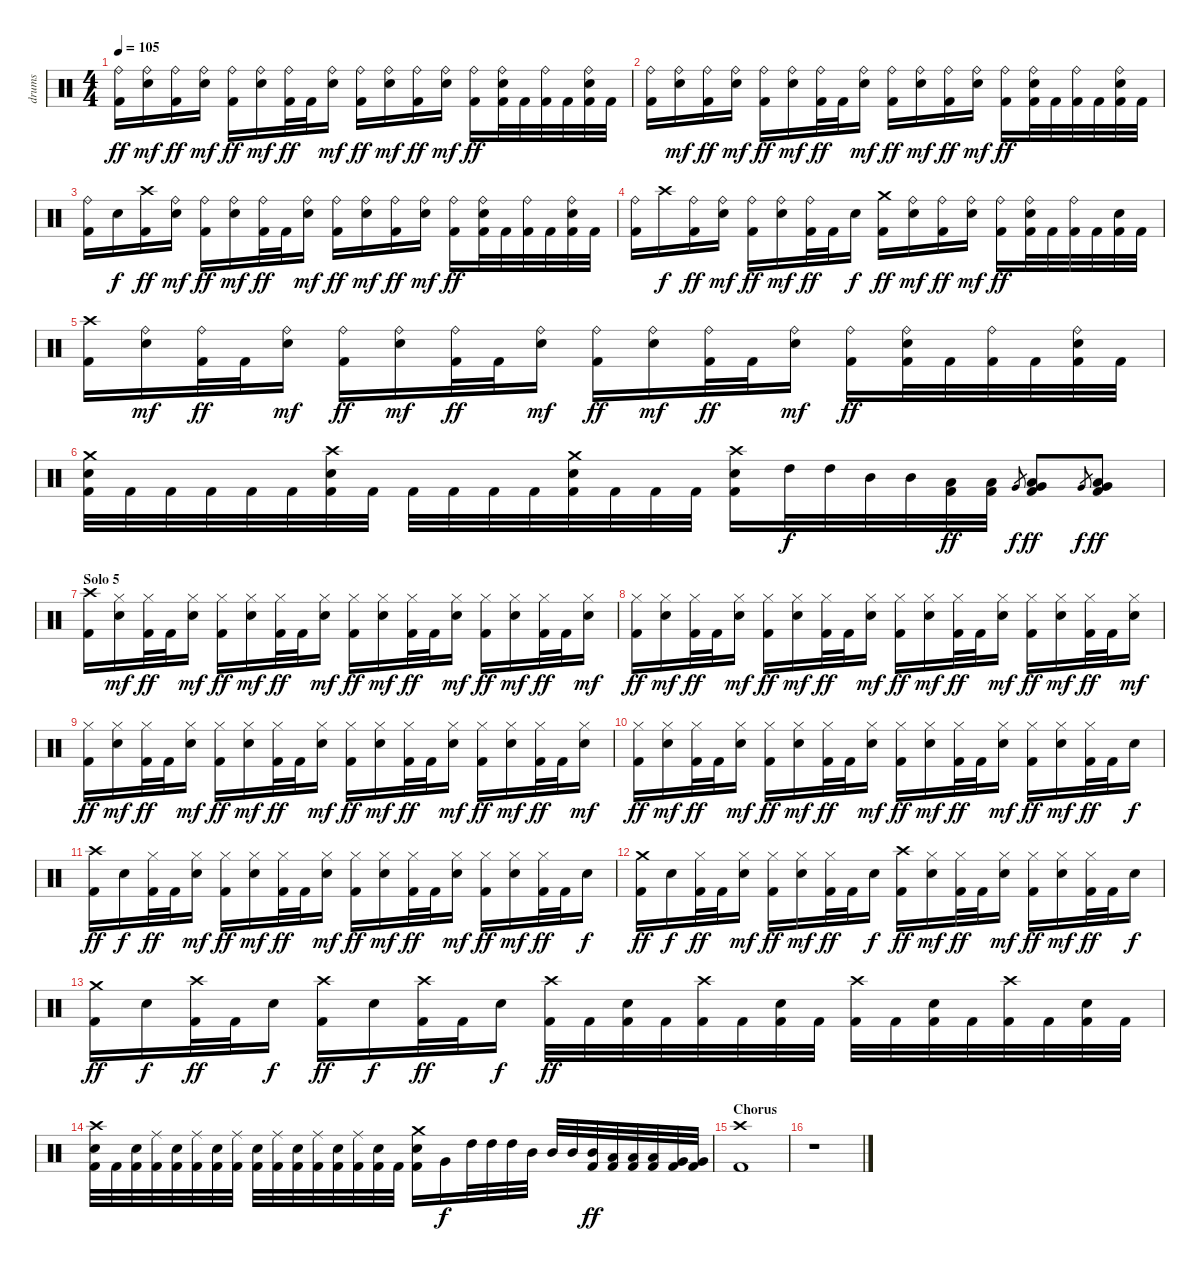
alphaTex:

\track ("drums" "drums") {instrument percussion}
\staff {score}
\articulation defaults
\ts (4 4)
\tempo 105
\clef neutral
\ks c
("Ride (bell)" "Kick (hit) 2").16{dy ff} ("Ride (bell)" "Snare (hit) 2").16{dy mf} ("Ride (bell)" "Kick (hit) 2").16{dy ff} ("Ride (bell)" "Snare (hit) 2").16{dy mf} ("Ride (bell)" "Kick (hit) 2").16{dy ff} ("Ride (bell)" "Snare (hit) 2").16{dy mf} ("Ride (bell)" "Kick (hit) 2").32{dy ff} "Kick (hit) 2".32 ("Ride (bell)" "Snare (hit) 2").16{dy mf} ("Ride (bell)" "Kick (hit) 2").16{dy ff} ("Ride (bell)" "Snare (hit) 2").16{dy mf} ("Ride (bell)" "Kick (hit) 2").16{dy ff} ("Ride (bell)" "Snare (hit) 2").16{dy mf} ("Ride (bell)" "Kick (hit) 2").16{dy ff} ("Ride (bell)" "Snare (hit) 2" "Kick (hit) 2").32 "Kick (hit) 2".32 ("Ride (bell)" "Kick (hit) 2").32 "Kick (hit) 2".32 ("Ride (bell)" "Snare (hit) 2" "Kick (hit) 2").32 "Kick (hit) 2".32 |
("Ride (bell)" "Kick (hit) 2").16 ("Ride (bell)" "Snare (hit) 2").16{dy mf} ("Ride (bell)" "Kick (hit) 2").16{dy ff} ("Ride (bell)" "Snare (hit) 2").16{dy mf} ("Ride (bell)" "Kick (hit) 2").16{dy ff} ("Ride (bell)" "Snare (hit) 2").16{dy mf} ("Ride (bell)" "Kick (hit) 2").32{dy ff} "Kick (hit) 2".32 ("Ride (bell)" "Snare (hit) 2").16{dy mf} ("Ride (bell)" "Kick (hit) 2").16{dy ff} ("Ride (bell)" "Snare (hit) 2").16{dy mf} ("Ride (bell)" "Kick (hit) 2").16{dy ff} ("Ride (bell)" "Snare (hit) 2").16{dy mf} ("Ride (bell)" "Kick (hit) 2").16{dy ff} ("Ride (bell)" "Snare (hit) 2" "Kick (hit) 2").32 "Kick (hit) 2".32 ("Ride (bell)" "Kick (hit) 2").32 "Kick (hit) 2".32 ("Ride (bell)" "Snare (hit) 2" "Kick (hit) 2").32 "Kick (hit) 2".32 |
("Ride (bell)" "Kick (hit) 2").16 "Snare (hit) 2".16{dy f} ("Crash high (hit)" "Kick (hit) 2").16{dy ff} ("Ride (bell)" "Snare (hit) 2").16{dy mf} ("Ride (bell)" "Kick (hit) 2").16{dy ff} ("Ride (bell)" "Snare (hit) 2").16{dy mf} ("Ride (bell)" "Kick (hit) 2").32{dy ff} "Kick (hit) 2".32 ("Ride (bell)" "Snare (hit) 2").16{dy mf} ("Ride (bell)" "Kick (hit) 2").16{dy ff} ("Ride (bell)" "Snare (hit) 2").16{dy mf} ("Ride (bell)" "Kick (hit) 2").16{dy ff} ("Ride (bell)" "Snare (hit) 2").16{dy mf} ("Ride (bell)" "Kick (hit) 2").16{dy ff} ("Ride (bell)" "Snare (hit) 2" "Kick (hit) 2").32 "Kick (hit) 2".32 ("Ride (bell)" "Kick (hit) 2").32 "Kick (hit) 2".32 ("Ride (bell)" "Snare (hit) 2" "Kick (hit) 2").32 "Kick (hit) 2".32 |
("Ride (bell)" "Kick (hit) 2").16 "Crash high (hit)".16{dy f} ("Ride (bell)" "Kick (hit) 2").16{dy ff} ("Ride (bell)" "Snare (hit) 2").16{dy mf} ("Ride (bell)" "Kick (hit) 2").16{dy ff} ("Ride (bell)" "Snare (hit) 2").16{dy mf} ("Ride (bell)" "Kick (hit) 2").32{dy ff} "Kick (hit) 2".32 "Snare (hit) 2".16{dy f} ("Crash medium (hit)" "Kick (hit) 2").16{dy ff} ("Ride (bell)" "Snare (hit) 2").16{dy mf} ("Ride (bell)" "Kick (hit) 2").16{dy ff} ("Ride (bell)" "Snare (hit) 2").16{dy mf} ("Ride (bell)" "Kick (hit) 2").16{dy ff} ("Ride (bell)" "Snare (hit) 2" "Kick (hit) 2").32 "Kick (hit) 2".32 ("Ride (bell)" "Kick (hit) 2").32 "Kick (hit) 2".32 ("Snare (hit) 2" "Kick (hit) 2").32 "Kick (hit) 2".32 |
("Crash high (hit)" "Kick (hit) 2").16 ("Ride (bell)" "Snare (hit) 2").16{dy mf} ("Ride (bell)" "Kick (hit) 2").32{dy ff} "Kick (hit) 2".32 ("Ride (bell)" "Snare (hit) 2").16{dy mf} ("Ride (bell)" "Kick (hit) 2").16{dy ff} ("Ride (bell)" "Snare (hit) 2").16{dy mf} ("Ride (bell)" "Kick (hit) 2").32{dy ff} "Kick (hit) 2".32 ("Ride (bell)" "Snare (hit) 2").16{dy mf} ("Ride (bell)" "Kick (hit) 2").16{dy ff} ("Ride (bell)" "Snare (hit) 2").16{dy mf} ("Ride (bell)" "Kick (hit) 2").32{dy ff} "Kick (hit) 2".32 ("Ride (bell)" "Snare (hit) 2").16{dy mf} ("Ride (bell)" "Kick (hit) 2").16{dy ff} ("Ride (bell)" "Snare (hit) 2" "Kick (hit) 2").32 "Kick (hit) 2".32 ("Ride (bell)" "Kick (hit) 2").32 "Kick (hit) 2".32 ("Ride (bell)" "Snare (hit) 2" "Kick (hit) 2").32 "Kick (hit) 2".32 |
("Crash medium (hit)" "Snare (hit) 2" "Kick (hit) 2").32 "Kick (hit) 2".32 "Kick (hit) 2".32 "Kick (hit) 2".32 "Kick (hit) 2".32 "Kick (hit) 2".32 ("Crash high (hit)" "Snare (hit) 2" "Kick (hit) 2").32 "Kick (hit) 2".32 "Kick (hit) 2".32 "Kick (hit) 2".32 "Kick (hit) 2".32 "Kick (hit) 2".32 ("Crash medium (hit)" "Snare (hit) 2" "Kick (hit) 2").32 "Kick (hit) 2".32 "Kick (hit) 2".32 "Kick (hit) 2".32 ("Crash high (hit)" "Snare (hit) 2" "Kick (hit) 2").16 "High Tom (hit)".32{dy f} "High Tom (hit)".32 "Mid Tom (hit)".32 "Mid Tom (hit)".32 ("Low Tom (hit)" "Kick (hit) 2").32{dy ff} ("Low Tom (hit)" "Kick (hit) 2").32 "Very Low Tom (hit)".8{gr dy f} ("Very Low Tom (hit)" "Low Floor Tom (hit)" "Kick (hit) 2").8{dy ff} "Very Low Tom (hit)".8{gr dy f} ("Very Low Tom (hit)" "Low Floor Tom (hit)" "Kick (hit) 2").8{dy ff} |
\section ("" "Solo 5")
("Crash high (hit)" "Kick (hit) 2").16 ("Hi-Hat (closed)" "Snare (hit) 2").16{dy mf} ("Hi-Hat (closed)" "Kick (hit) 2").32{dy ff} "Kick (hit) 2".32 ("Hi-Hat (closed)" "Snare (hit) 2").16{dy mf} ("Hi-Hat (closed)" "Kick (hit) 2").16{dy ff} ("Hi-Hat (closed)" "Snare (hit) 2").16{dy mf} ("Hi-Hat (closed)" "Kick (hit) 2").32{dy ff} "Kick (hit) 2".32 ("Hi-Hat (closed)" "Snare (hit) 2").16{dy mf} ("Hi-Hat (closed)" "Kick (hit) 2").16{dy ff} ("Hi-Hat (closed)" "Snare (hit) 2").16{dy mf} ("Hi-Hat (closed)" "Kick (hit) 2").32{dy ff} "Kick (hit) 2".32 ("Hi-Hat (closed)" "Snare (hit) 2").16{dy mf} ("Hi-Hat (closed)" "Kick (hit) 2").16{dy ff} ("Hi-Hat (closed)" "Snare (hit) 2").16{dy mf} ("Hi-Hat (closed)" "Kick (hit) 2").32{dy ff} "Kick (hit) 2".32 ("Hi-Hat (closed)" "Snare (hit) 2").16{dy mf} |
("Hi-Hat (closed)" "Kick (hit) 2").16{dy ff} ("Hi-Hat (closed)" "Snare (hit) 2").16{dy mf} ("Hi-Hat (closed)" "Kick (hit) 2").32{dy ff} "Kick (hit) 2".32 ("Hi-Hat (closed)" "Snare (hit) 2").16{dy mf} ("Hi-Hat (closed)" "Kick (hit) 2").16{dy ff} ("Hi-Hat (closed)" "Snare (hit) 2").16{dy mf} ("Hi-Hat (closed)" "Kick (hit) 2").32{dy ff} "Kick (hit) 2".32 ("Hi-Hat (closed)" "Snare (hit) 2").16{dy mf} ("Hi-Hat (closed)" "Kick (hit) 2").16{dy ff} ("Hi-Hat (closed)" "Snare (hit) 2").16{dy mf} ("Hi-Hat (closed)" "Kick (hit) 2").32{dy ff} "Kick (hit) 2".32 ("Hi-Hat (closed)" "Snare (hit) 2").16{dy mf} ("Hi-Hat (closed)" "Kick (hit) 2").16{dy ff} ("Hi-Hat (closed)" "Snare (hit) 2").16{dy mf} ("Hi-Hat (closed)" "Kick (hit) 2").32{dy ff} "Kick (hit) 2".32 ("Hi-Hat (closed)" "Snare (hit) 2").16{dy mf} |
("Hi-Hat (closed)" "Kick (hit) 2").16{dy ff} ("Hi-Hat (closed)" "Snare (hit) 2").16{dy mf} ("Hi-Hat (closed)" "Kick (hit) 2").32{dy ff} "Kick (hit) 2".32 ("Hi-Hat (closed)" "Snare (hit) 2").16{dy mf} ("Hi-Hat (closed)" "Kick (hit) 2").16{dy ff} ("Hi-Hat (closed)" "Snare (hit) 2").16{dy mf} ("Hi-Hat (closed)" "Kick (hit) 2").32{dy ff} "Kick (hit) 2".32 ("Hi-Hat (closed)" "Snare (hit) 2").16{dy mf} ("Hi-Hat (closed)" "Kick (hit) 2").16{dy ff} ("Hi-Hat (closed)" "Snare (hit) 2").16{dy mf} ("Hi-Hat (closed)" "Kick (hit) 2").32{dy ff} "Kick (hit) 2".32 ("Hi-Hat (closed)" "Snare (hit) 2").16{dy mf} ("Hi-Hat (closed)" "Kick (hit) 2").16{dy ff} ("Hi-Hat (closed)" "Snare (hit) 2").16{dy mf} ("Hi-Hat (closed)" "Kick (hit) 2").32{dy ff} "Kick (hit) 2".32 ("Hi-Hat (closed)" "Snare (hit) 2").16{dy mf} |
("Hi-Hat (closed)" "Kick (hit) 2").16{dy ff} ("Hi-Hat (closed)" "Snare (hit) 2").16{dy mf} ("Hi-Hat (closed)" "Kick (hit) 2").32{dy ff} "Kick (hit) 2".32 ("Hi-Hat (closed)" "Snare (hit) 2").16{dy mf} ("Hi-Hat (closed)" "Kick (hit) 2").16{dy ff} ("Hi-Hat (closed)" "Snare (hit) 2").16{dy mf} ("Hi-Hat (closed)" "Kick (hit) 2").32{dy ff} "Kick (hit) 2".32 ("Hi-Hat (closed)" "Snare (hit) 2").16{dy mf} ("Hi-Hat (closed)" "Kick (hit) 2").16{dy ff} ("Hi-Hat (closed)" "Snare (hit) 2").16{dy mf} ("Hi-Hat (closed)" "Kick (hit) 2").32{dy ff} "Kick (hit) 2".32 ("Hi-Hat (closed)" "Snare (hit) 2").16{dy mf} ("Hi-Hat (closed)" "Kick (hit) 2").16{dy ff} ("Hi-Hat (closed)" "Snare (hit) 2").16{dy mf} ("Hi-Hat (closed)" "Kick (hit) 2").32{dy ff} "Kick (hit) 2".32 "Snare (hit) 2".16{dy f} |
("Crash high (hit)" "Kick (hit) 2").16{dy ff} "Snare (hit) 2".16{dy f} ("Hi-Hat (closed)" "Kick (hit) 2").32{dy ff} "Kick (hit) 2".32 ("Hi-Hat (closed)" "Snare (hit) 2").16{dy mf} ("Hi-Hat (closed)" "Kick (hit) 2").16{dy ff} ("Hi-Hat (closed)" "Snare (hit) 2").16{dy mf} ("Hi-Hat (closed)" "Kick (hit) 2").32{dy ff} "Kick (hit) 2".32 ("Hi-Hat (closed)" "Snare (hit) 2").16{dy mf} ("Hi-Hat (closed)" "Kick (hit) 2").16{dy ff} ("Hi-Hat (closed)" "Snare (hit) 2").16{dy mf} ("Hi-Hat (closed)" "Kick (hit) 2").32{dy ff} "Kick (hit) 2".32 ("Hi-Hat (closed)" "Snare (hit) 2").16{dy mf} ("Hi-Hat (closed)" "Kick (hit) 2").16{dy ff} ("Hi-Hat (closed)" "Snare (hit) 2").16{dy mf} ("Hi-Hat (closed)" "Kick (hit) 2").32{dy ff} "Kick (hit) 2".32 "Snare (hit) 2".16{dy f} |
("Crash medium (hit)" "Kick (hit) 2").16{dy ff} "Snare (hit) 2".16{dy f} ("Hi-Hat (closed)" "Kick (hit) 2").32{dy ff} "Kick (hit) 2".32 ("Hi-Hat (closed)" "Snare (hit) 2").16{dy mf} ("Hi-Hat (closed)" "Kick (hit) 2").16{dy ff} ("Hi-Hat (closed)" "Snare (hit) 2").16{dy mf} ("Hi-Hat (closed)" "Kick (hit) 2").32{dy ff} "Kick (hit) 2".32 "Snare (hit) 2".16{dy f} ("Crash high (hit)" "Kick (hit) 2").16{dy ff} ("Hi-Hat (closed)" "Snare (hit) 2").16{dy mf} ("Hi-Hat (closed)" "Kick (hit) 2").32{dy ff} "Kick (hit) 2".32 ("Hi-Hat (closed)" "Snare (hit) 2").16{dy mf} ("Hi-Hat (closed)" "Kick (hit) 2").16{dy ff} ("Hi-Hat (closed)" "Snare (hit) 2").16{dy mf} ("Hi-Hat (closed)" "Kick (hit) 2").32{dy ff} "Kick (hit) 2".32 "Snare (hit) 2".16{dy f} |
("Crash medium (hit)" "Kick (hit) 2").16{dy ff} "Snare (hit) 2".16{dy f} ("Crash high (hit)" "Kick (hit) 2").32{dy ff} "Kick (hit) 2".32 "Snare (hit) 2".16{dy f} ("Crash high (hit)" "Kick (hit) 2").16{dy ff} "Snare (hit) 2".16{dy f} ("Crash high (hit)" "Kick (hit) 2").32{dy ff} "Kick (hit) 2".32 "Snare (hit) 2".16{dy f} ("Crash high (hit)" "Kick (hit) 2").32{dy ff} "Kick (hit) 2".32 ("Snare (hit) 2" "Kick (hit) 2").32 "Kick (hit) 2".32 ("Crash high (hit)" "Kick (hit) 2").32 "Kick (hit) 2".32 ("Snare (hit) 2" "Kick (hit) 2").32 "Kick (hit) 2".32 ("Crash high (hit)" "Kick (hit) 2").32 "Kick (hit) 2".32 ("Snare (hit) 2" "Kick (hit) 2").32 "Kick (hit) 2".32 ("Crash high (hit)" "Kick (hit) 2").32 "Kick (hit) 2".32 ("Snare (hit) 2" "Kick (hit) 2").32 "Kick (hit) 2".32 |
("Crash high (hit)" "Snare (hit) 2" "Kick (hit) 2").32 "Kick (hit) 2".32 ("Snare (hit) 2" "Kick (hit) 2").32 ("Ride (middle)" "Kick (hit) 2").32 ("Snare (hit) 2" "Kick (hit) 2").32 ("Ride (middle)" "Kick (hit) 2").32 ("Snare (hit) 2" "Kick (hit) 2").32 ("Ride (middle)" "Kick (hit) 2").32 ("Snare (hit) 2" "Kick (hit) 2").32 ("Ride (middle)" "Kick (hit) 2").32 ("Snare (hit) 2" "Kick (hit) 2").32 ("Ride (middle)" "Kick (hit) 2").32 ("Snare (hit) 2" "Kick (hit) 2").32 ("Ride (middle)" "Kick (hit) 2").32 ("Snare (hit) 2" "Kick (hit) 2").32 "Kick (hit) 2".32 ("Crash medium (hit)" "Snare (hit) 2" "Kick (hit) 2").16 "Very Low Tom (hit)".16{dy f} "High Tom (hit)".32 "High Tom (hit)".32 "High Tom (hit)".32 "Mid Tom (hit)".32 "Mid Tom (hit)".32 "Mid Tom (hit)".32 ("Mid Tom (hit)" "Kick (hit) 2").32{dy ff} ("Low Tom (hit)" "Kick (hit) 2").32 ("Low Tom (hit)" "Kick (hit) 2").32 ("Low Tom (hit)" "Kick (hit) 2").32 ("Very Low Tom (hit)" "Kick (hit) 2").32 ("Very Low Tom (hit)" "Kick (hit) 2").32 |
\section ("" "Chorus")
("Crash high (hit)" "Kick (hit) 2").1 |
r.1
